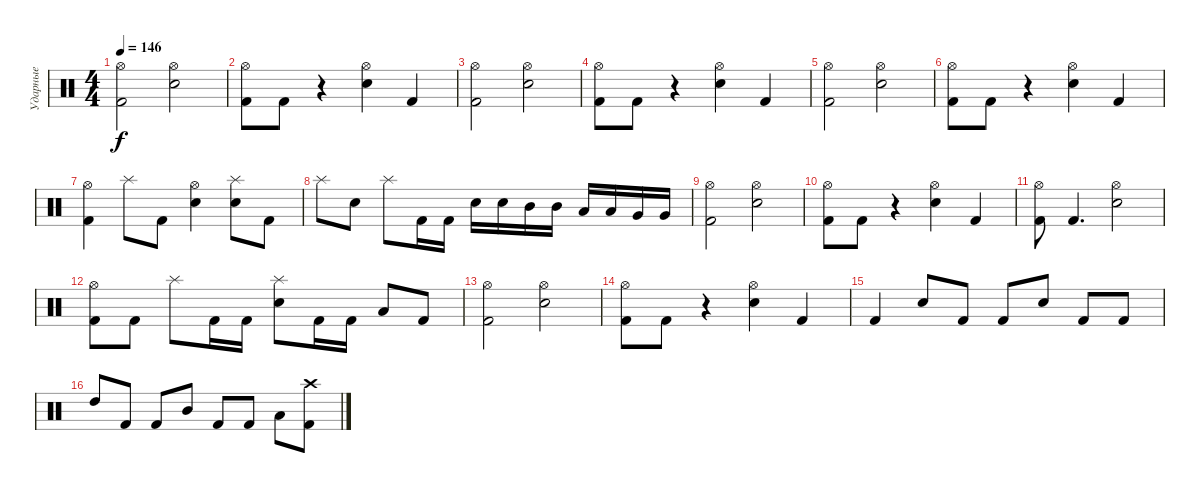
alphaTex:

\track ("Ударные" "Ударные") {instrument percussion}
\staff {score}
\articulation defaults
\ts (4 4)
\tempo 146
\clef neutral
\ks c
("Hi-Hat (open)" "Kick (hit) 2").2{dy f} ("Hi-Hat (open)" "Snare (hit) 2").2 |
("Hi-Hat (open)" "Kick (hit) 2").8 "Kick (hit) 2".8 r.4 ("Hi-Hat (open)" "Snare (hit) 2").4 "Kick (hit) 2".4 |
("Hi-Hat (open)" "Kick (hit) 2").2 ("Hi-Hat (open)" "Snare (hit) 2").2 |
("Hi-Hat (open)" "Kick (hit) 2").8 "Kick (hit) 2".8 r.4 ("Hi-Hat (open)" "Snare (hit) 2").4 "Kick (hit) 2".4 |
("Hi-Hat (open)" "Kick (hit) 2").2 ("Hi-Hat (open)" "Snare (hit) 2").2 |
("Hi-Hat (open)" "Kick (hit) 2").8 "Kick (hit) 2".8 r.4 ("Hi-Hat (open)" "Snare (hit) 2").4 "Kick (hit) 2".4 |
("Hi-Hat (open)" "Kick (hit) 2").4 "Splash (hit)".8 "Kick (hit) 2".8 ("Hi-Hat (open)" "Snare (hit) 2").4 ("Splash (hit)" "Snare (hit) 2").8 "Kick (hit) 2".8 |
"Splash (hit)".8 "Snare (hit) 2".8 "Splash (hit)".8 "Kick (hit) 2".16 "Kick (hit) 2".16 "Snare (hit) 2".16 "Snare (hit) 2".16 "Mid Tom (hit)".16 "Mid Tom (hit)".16 "Low Tom (hit)".16 "Low Tom (hit)".16 "Very Low Tom (hit)".16 "Very Low Tom (hit)".16 |
("Hi-Hat (open)" "Kick (hit) 2").2 ("Hi-Hat (open)" "Snare (hit) 2").2 |
("Hi-Hat (open)" "Kick (hit) 2").8 "Kick (hit) 2".8 r.4 ("Hi-Hat (open)" "Snare (hit) 2").4 "Kick (hit) 2".4 |
("Hi-Hat (open)" "Kick (hit) 2").8 "Kick (hit) 2".4{d} ("Hi-Hat (open)" "Snare (hit) 2").2 |
("Hi-Hat (open)" "Kick (hit) 2").8 "Kick (hit) 2".8 "Splash (hit)".8 "Kick (hit) 2".16 "Kick (hit) 2".16 ("Splash (hit)" "Snare (hit) 2").8 "Kick (hit) 2".16 "Kick (hit) 2".16 "Low Tom (hit)".8 "Kick (hit) 2".8 |
("Hi-Hat (open)" "Kick (hit) 2").2 ("Hi-Hat (open)" "Snare (hit) 2").2 |
("Hi-Hat (open)" "Kick (hit) 2").8 "Kick (hit) 2".8 r.4 ("Hi-Hat (open)" "Snare (hit) 2").4 "Kick (hit) 2".4 |
"Kick (hit) 2".4 "Snare (hit) 2".8 "Kick (hit) 2".8 "Kick (hit) 2".8 "Snare (hit) 2".8 "Kick (hit) 2".8 "Kick (hit) 2".8 |
"High Tom (hit)".8 "Kick (hit) 2".8 "Kick (hit) 2".8 "Mid Tom (hit)".8 "Kick (hit) 2".8 "Kick (hit) 2".8 "Low Tom (hit)".8 ("Crash high (hit)" "Kick (hit) 2").8
